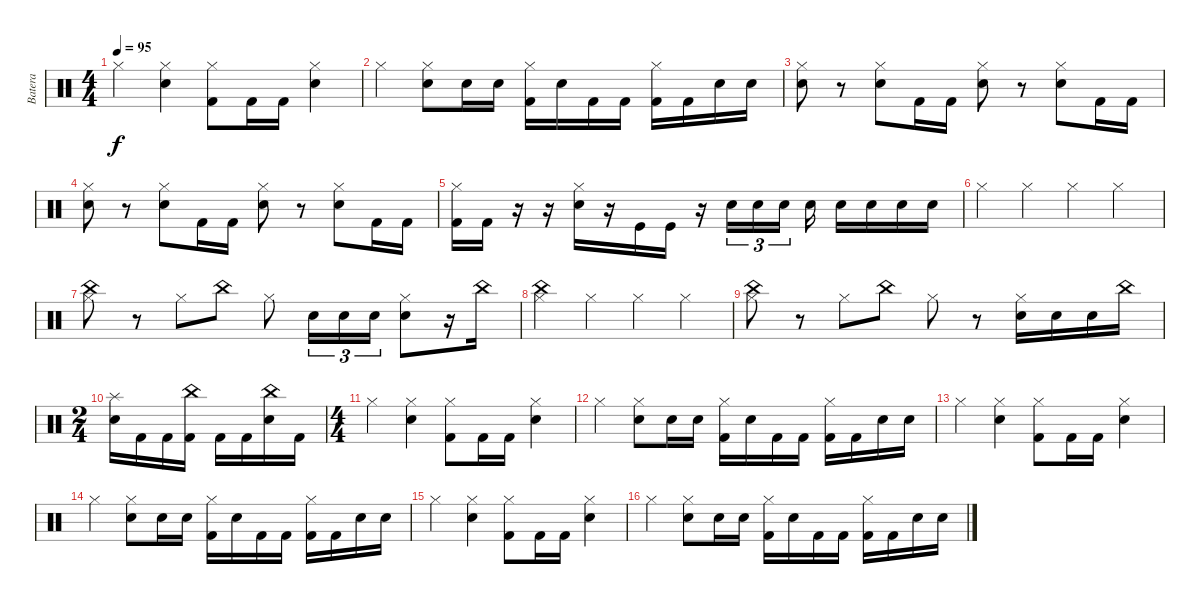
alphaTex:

\track ("Batera" "Batera") {instrument percussion}
\staff {score}
\articulation defaults
\ts (4 4)
\tempo 95
\clef neutral
\ks c "Hi-Hat (closed)".4{dy f}
("Hi-Hat (closed)" "Snare (hit) 2").4 ("Hi-Hat (closed)" "Kick (hit) 2").8 "Kick (hit) 2".16 "Kick (hit) 2".16 ("Hi-Hat (closed)" "Snare (hit) 2").4 |
"Hi-Hat (closed)".4 ("Hi-Hat (closed)" "Snare (hit) 2").8 "Snare (hit) 2".16 "Snare (hit) 2".16 ("Hi-Hat (closed)" "Kick (hit) 2").16 "Snare (hit) 2".16 "Kick (hit) 2".16 "Kick (hit) 2".16 ("Hi-Hat (closed)" "Kick (hit) 2").16 "Kick (hit) 2".16 "Snare (hit) 2".16 "Snare (hit) 2".16 |
("Hi-Hat (closed)" "Snare (hit) 2").8 r.8 ("Hi-Hat (closed)" "Snare (hit) 2").8 "Kick (hit) 2".16 "Kick (hit) 2".16 ("Hi-Hat (closed)" "Snare (hit) 2").8 r.8 ("Hi-Hat (closed)" "Snare (hit) 2").8 "Kick (hit) 2".16 "Kick (hit) 2".16 |
("Hi-Hat (closed)" "Snare (hit) 2").8 r.8 ("Hi-Hat (closed)" "Snare (hit) 2").8 "Kick (hit) 2".16 "Kick (hit) 2".16 ("Hi-Hat (closed)" "Snare (hit) 2").8 r.8 ("Hi-Hat (closed)" "Snare (hit) 2").8 "Kick (hit) 2".16 "Kick (hit) 2".16 |
("Hi-Hat (closed)" "Kick (hit) 2").16 "Kick (hit) 2".16 r.16 r.16 ("Hi-Hat (closed)" "Snare (hit) 2").16 r.16 "Kick (hit)".16 "Kick (hit)".16 r.16 "Snare (hit) 2".16{tu (3 2)} "Snare (hit) 2".16{tu (3 2)} "Snare (hit) 2".16{tu (3 2)} "Snare (hit) 2".16 "Snare (hit) 2".16 "Snare (hit) 2".16 "Snare (hit) 2".16 "Snare (hit) 2".16 |
"Hi-Hat (closed)".4 "Hi-Hat (closed)".4 "Hi-Hat (closed)".4 "Hi-Hat (closed)".4 |
("Hi-Hat (closed)" "China (hit)").8 r.8 "Hi-Hat (closed)".8 "China (hit)".8 "Hi-Hat (closed)".8 "Snare (hit) 2".16{tu (3 2)} "Snare (hit) 2".16{tu (3 2)} "Snare (hit) 2".16{tu (3 2)} ("Hi-Hat (closed)" "Snare (hit) 2").8 r.16 "China (hit)".16 |
("Hi-Hat (closed)" "China (hit)").4 "Hi-Hat (closed)".4 "Hi-Hat (closed)".4 "Hi-Hat (closed)".4 |
("Hi-Hat (closed)" "China (hit)").8 r.8 "Hi-Hat (closed)".8 "China (hit)".8 "Hi-Hat (closed)".8 r.8 ("Hi-Hat (closed)" "Snare (hit) 2").16 "Snare (hit) 2".16 "Snare (hit) 2".16 "China (hit)".16 |
\ts (2 4)
("Splash (hit)" "Snare (hit) 2").16 "Kick (hit) 2".16 "Kick (hit) 2".16 ("China (hit)" "Kick (hit) 2").16 "Kick (hit) 2".16 "Kick (hit) 2".16 ("China (hit)" "Snare (hit) 2").16 "Kick (hit) 2".16 |
\ts (4 4)
"Hi-Hat (closed)".4 ("Hi-Hat (closed)" "Snare (hit) 2").4 ("Hi-Hat (closed)" "Kick (hit) 2").8 "Kick (hit) 2".16 "Kick (hit) 2".16 ("Hi-Hat (closed)" "Snare (hit) 2").4 |
"Hi-Hat (closed)".4 ("Hi-Hat (closed)" "Snare (hit) 2").8 "Snare (hit) 2".16 "Snare (hit) 2".16 ("Hi-Hat (closed)" "Kick (hit) 2").16 "Snare (hit) 2".16 "Kick (hit) 2".16 "Kick (hit) 2".16 ("Hi-Hat (closed)" "Kick (hit) 2").16 "Kick (hit) 2".16 "Snare (hit) 2".16 "Snare (hit) 2".16 |
"Hi-Hat (closed)".4 ("Hi-Hat (closed)" "Snare (hit) 2").4 ("Hi-Hat (closed)" "Kick (hit) 2").8 "Kick (hit) 2".16 "Kick (hit) 2".16 ("Hi-Hat (closed)" "Snare (hit) 2").4 |
"Hi-Hat (closed)".4 ("Hi-Hat (closed)" "Snare (hit) 2").8 "Snare (hit) 2".16 "Snare (hit) 2".16 ("Hi-Hat (closed)" "Kick (hit) 2").16 "Snare (hit) 2".16 "Kick (hit) 2".16 "Kick (hit) 2".16 ("Hi-Hat (closed)" "Kick (hit) 2").16 "Kick (hit) 2".16 "Snare (hit) 2".16 "Snare (hit) 2".16 |
"Hi-Hat (closed)".4 ("Hi-Hat (closed)" "Snare (hit) 2").4 ("Hi-Hat (closed)" "Kick (hit) 2").8 "Kick (hit) 2".16 "Kick (hit) 2".16 ("Hi-Hat (closed)" "Snare (hit) 2").4 |
"Hi-Hat (closed)".4 ("Hi-Hat (closed)" "Snare (hit) 2").8 "Snare (hit) 2".16 "Snare (hit) 2".16 ("Hi-Hat (closed)" "Kick (hit) 2").16 "Snare (hit) 2".16 "Kick (hit) 2".16 "Kick (hit) 2".16 ("Hi-Hat (closed)" "Kick (hit) 2").16 "Kick (hit) 2".16 "Snare (hit) 2".16 "Snare (hit) 2".16
